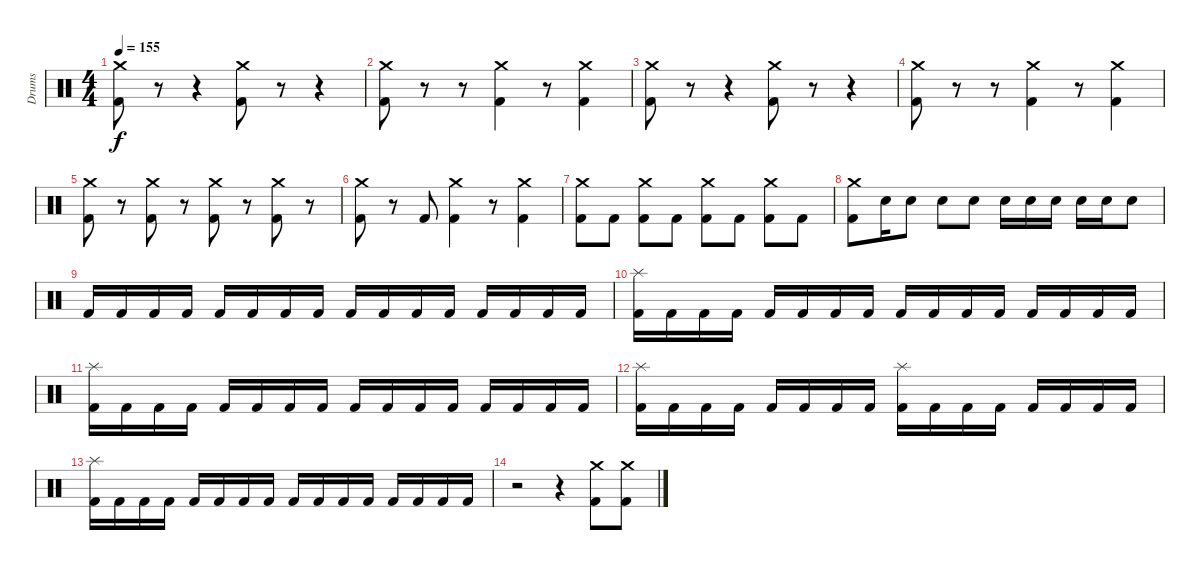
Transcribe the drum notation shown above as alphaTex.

\track ("Drums" "Drums") {instrument percussion}
\staff {score}
\articulation defaults
\ts (4 4)
\tempo 155
\clef neutral
\ks c
("Crash medium (hit)" "Kick (hit) 2").8{dy f} r.8 r.4 ("Crash medium (hit)" "Kick (hit) 2").8 r.8 r.4 |
("Crash medium (hit)" "Kick (hit) 2").8 r.8 r.8 ("Crash medium (hit)" "Kick (hit) 2").4 r.8 ("Crash medium (hit)" "Kick (hit) 2").4 |
("Crash medium (hit)" "Kick (hit) 2").8 r.8 r.4 ("Crash medium (hit)" "Kick (hit) 2").8 r.8 r.4 |
("Crash medium (hit)" "Kick (hit) 2").8 r.8 r.8 ("Crash medium (hit)" "Kick (hit) 2").4 r.8 ("Crash medium (hit)" "Kick (hit) 2").4 |
("Crash medium (hit)" "Kick (hit) 2").8 r.8 ("Crash medium (hit)" "Kick (hit) 2").8 r.8 ("Crash medium (hit)" "Kick (hit) 2").8 r.8 ("Crash medium (hit)" "Kick (hit) 2").8 r.8 |
("Crash medium (hit)" "Kick (hit) 2").8 r.8 "Kick (hit) 2".8 ("Crash medium (hit)" "Kick (hit) 2").4 r.8 ("Crash medium (hit)" "Kick (hit) 2").4 |
("Crash medium (hit)" "Kick (hit) 2").8 "Kick (hit) 2".8 ("Crash medium (hit)" "Kick (hit) 2").8 "Kick (hit) 2".8 ("Crash medium (hit)" "Kick (hit) 2").8 "Kick (hit) 2".8 ("Crash medium (hit)" "Kick (hit) 2").8 "Kick (hit) 2".8 |
("Crash medium (hit)" "Kick (hit) 2").8 "Snare (hit) 2".16 "Snare (hit) 2".8 "Snare (hit) 2".8 "Snare (hit) 2".8 "Snare (hit) 2".16 "Snare (hit) 2".16 "Snare (hit) 2".16 "Snare (hit) 2".16 "Snare (hit) 2".16 "Snare (hit) 2".8 |
"Kick (hit) 2".16 "Kick (hit) 2".16 "Kick (hit) 2".16 "Kick (hit) 2".16 "Kick (hit) 2".16 "Kick (hit) 2".16 "Kick (hit) 2".16 "Kick (hit) 2".16 "Kick (hit) 2".16 "Kick (hit) 2".16 "Kick (hit) 2".16 "Kick (hit) 2".16 "Kick (hit) 2".16 "Kick (hit) 2".16 "Kick (hit) 2".16 "Kick (hit) 2".16 |
("Splash (hit)" "Kick (hit) 2").16 "Kick (hit) 2".16 "Kick (hit) 2".16 "Kick (hit) 2".16 "Kick (hit) 2".16 "Kick (hit) 2".16 "Kick (hit) 2".16 "Kick (hit) 2".16 "Kick (hit) 2".16 "Kick (hit) 2".16 "Kick (hit) 2".16 "Kick (hit) 2".16 "Kick (hit) 2".16 "Kick (hit) 2".16 "Kick (hit) 2".16 "Kick (hit) 2".16 |
("Splash (hit)" "Kick (hit) 2").16 "Kick (hit) 2".16 "Kick (hit) 2".16 "Kick (hit) 2".16 "Kick (hit) 2".16 "Kick (hit) 2".16 "Kick (hit) 2".16 "Kick (hit) 2".16 "Kick (hit) 2".16 "Kick (hit) 2".16 "Kick (hit) 2".16 "Kick (hit) 2".16 "Kick (hit) 2".16 "Kick (hit) 2".16 "Kick (hit) 2".16 "Kick (hit) 2".16 |
("Splash (hit)" "Kick (hit) 2").16 "Kick (hit) 2".16 "Kick (hit) 2".16 "Kick (hit) 2".16 "Kick (hit) 2".16 "Kick (hit) 2".16 "Kick (hit) 2".16 "Kick (hit) 2".16 ("Splash (hit)" "Kick (hit) 2").16 "Kick (hit) 2".16 "Kick (hit) 2".16 "Kick (hit) 2".16 "Kick (hit) 2".16 "Kick (hit) 2".16 "Kick (hit) 2".16 "Kick (hit) 2".16 |
("Splash (hit)" "Kick (hit) 2").16 "Kick (hit) 2".16 "Kick (hit) 2".16 "Kick (hit) 2".16 "Kick (hit) 2".16 "Kick (hit) 2".16 "Kick (hit) 2".16 "Kick (hit) 2".16 "Kick (hit) 2".16 "Kick (hit) 2".16 "Kick (hit) 2".16 "Kick (hit) 2".16 "Kick (hit) 2".16 "Kick (hit) 2".16 "Kick (hit) 2".16 "Kick (hit) 2".16 |
r.2 r.4 ("Crash medium (hit)" "Kick (hit) 2").8 ("Crash medium (hit)" "Kick (hit) 2").8
